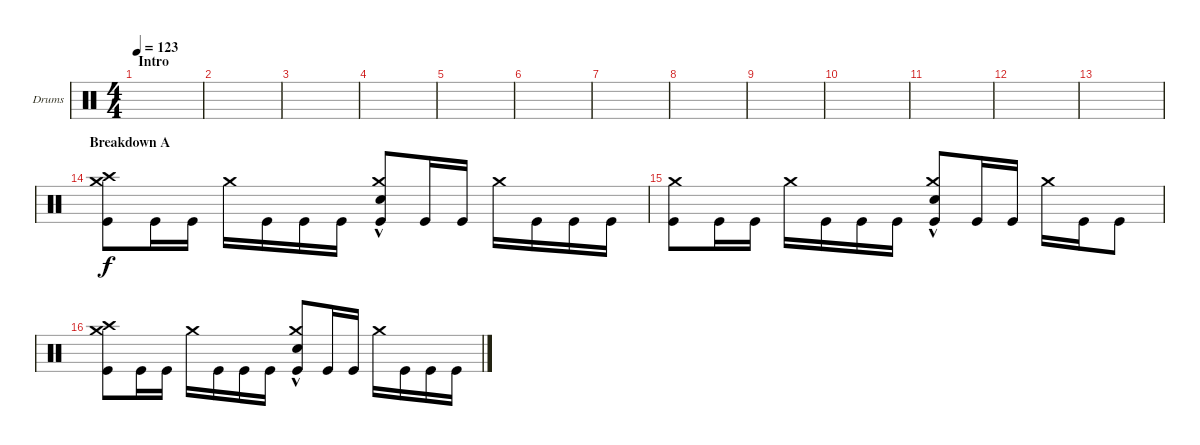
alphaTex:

\bracketExtendMode groupsimilarinstruments
\firstSystemTrackNameOrientation horizontal
\otherSystemsTrackNameOrientation horizontal
\track ("Drumkit" "Drums") {instrument percussion}
\staff {score}
\articulation defaults
\ts (4 4)
\section ("" "Intro")
\tempo 123
\clef neutral
\ks aminor
|
|
|
|
|
|
|
|
|
|
|
|
|
\section ("" "Breakdown A")
("Kick (hit)" "Crash medium (hit)" "Crash high (hit)").8 "Kick (hit)".16 "Kick (hit)".16 "Crash medium (hit)".16 "Kick (hit)".16 "Kick (hit)".16 "Kick (hit)".16 ("Kick (hit)" "Crash medium (hit)" "Snare (hit) 2"{hac}).8 "Kick (hit)".16 "Kick (hit)".16 "Crash medium (hit)".16 "Kick (hit)".16 "Kick (hit)".16 "Kick (hit)".16 |
("Kick (hit)" "Crash medium (hit)").8 "Kick (hit)".16 "Kick (hit)".16 "Crash medium (hit)".16 "Kick (hit)".16 "Kick (hit)".16 "Kick (hit)".16 ("Kick (hit)" "Crash medium (hit)" "Snare (hit) 2"{hac}).8 "Kick (hit)".16 "Kick (hit)".16 "Crash medium (hit)".16 "Kick (hit)".16 "Kick (hit)".8 |
("Kick (hit)" "Crash medium (hit)" "Crash high (hit)").8 "Kick (hit)".16 "Kick (hit)".16 "Crash medium (hit)".16 "Kick (hit)".16 "Kick (hit)".16 "Kick (hit)".16 ("Kick (hit)" "Crash medium (hit)" "Snare (hit) 2"{hac}).8 "Kick (hit)".16 "Kick (hit)".16 "Crash medium (hit)".16 "Kick (hit)".16 "Kick (hit)".16 "Kick (hit)".16
